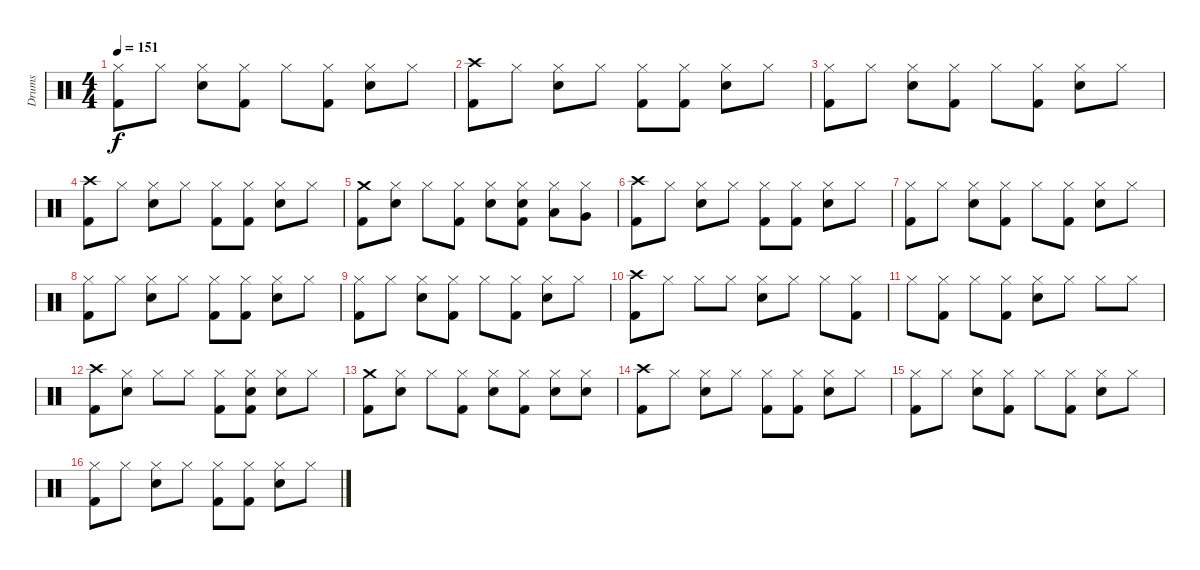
\track ("Drums" "Drums") {instrument percussion}
\staff {score}
\articulation defaults
\ts (4 4)
\tempo 151
\clef neutral
\ks c
("Kick (hit) 2" "Hi-Hat (closed)").8{dy f} "Hi-Hat (closed)".8 ("Electric Snare (hit)" "Hi-Hat (closed)").8 ("Kick (hit) 2" "Hi-Hat (closed)").8 "Hi-Hat (closed)".8 ("Kick (hit) 2" "Hi-Hat (closed)").8 ("Electric Snare (hit)" "Hi-Hat (closed)").8 "Hi-Hat (closed)".8 |
("Crash high (hit)" "Kick (hit) 2").8 "Hi-Hat (closed)".8 ("Electric Snare (hit)" "Hi-Hat (closed)").8 "Hi-Hat (closed)".8 ("Kick (hit) 2" "Hi-Hat (closed)").8 ("Kick (hit) 2" "Hi-Hat (closed)").8 ("Electric Snare (hit)" "Hi-Hat (closed)").8 "Hi-Hat (closed)".8 |
("Kick (hit) 2" "Hi-Hat (closed)").8 "Hi-Hat (closed)".8 ("Electric Snare (hit)" "Hi-Hat (closed)").8 ("Kick (hit) 2" "Hi-Hat (closed)").8 "Hi-Hat (closed)".8 ("Kick (hit) 2" "Hi-Hat (closed)").8 ("Electric Snare (hit)" "Hi-Hat (closed)").8 "Hi-Hat (closed)".8 |
("Crash high (hit)" "Kick (hit) 2").8 "Hi-Hat (closed)".8 ("Electric Snare (hit)" "Hi-Hat (closed)").8 "Hi-Hat (closed)".8 ("Kick (hit) 2" "Hi-Hat (closed)").8 ("Kick (hit) 2" "Hi-Hat (closed)").8 ("Electric Snare (hit)" "Hi-Hat (closed)").8 "Hi-Hat (closed)".8 |
("Kick (hit) 2" "Crash medium (hit)").8 ("Electric Snare (hit)" "Hi-Hat (closed)").8 "Hi-Hat (closed)".8 ("Kick (hit) 2" "Hi-Hat (closed)").8 ("Electric Snare (hit)" "Hi-Hat (closed)").8 ("Electric Snare (hit)" "Kick (hit) 2" "Hi-Hat (closed)").8 ("Low Tom (hit)" "Hi-Hat (closed)").8 ("Very Low Tom (hit)" "Hi-Hat (closed)").8 |
("Crash high (hit)" "Kick (hit) 2").8 "Hi-Hat (closed)".8 ("Electric Snare (hit)" "Hi-Hat (closed)").8 "Hi-Hat (closed)".8 ("Kick (hit) 2" "Hi-Hat (closed)").8 ("Kick (hit) 2" "Hi-Hat (closed)").8 ("Electric Snare (hit)" "Hi-Hat (closed)").8 "Hi-Hat (closed)".8 |
("Kick (hit) 2" "Hi-Hat (closed)").8 "Hi-Hat (closed)".8 ("Electric Snare (hit)" "Hi-Hat (closed)").8 ("Kick (hit) 2" "Hi-Hat (closed)").8 "Hi-Hat (closed)".8 ("Kick (hit) 2" "Hi-Hat (closed)").8 ("Electric Snare (hit)" "Hi-Hat (closed)").8 "Hi-Hat (closed)".8 |
("Hi-Hat (closed)" "Kick (hit) 2").8 "Hi-Hat (closed)".8 ("Electric Snare (hit)" "Hi-Hat (closed)").8 "Hi-Hat (closed)".8 ("Kick (hit) 2" "Hi-Hat (closed)").8 ("Kick (hit) 2" "Hi-Hat (closed)").8 ("Electric Snare (hit)" "Hi-Hat (closed)").8 "Hi-Hat (closed)".8 |
("Kick (hit) 2" "Hi-Hat (closed)").8 "Hi-Hat (closed)".8 ("Electric Snare (hit)" "Hi-Hat (closed)").8 ("Kick (hit) 2" "Hi-Hat (closed)").8 "Hi-Hat (closed)".8 ("Kick (hit) 2" "Hi-Hat (closed)").8 ("Electric Snare (hit)" "Hi-Hat (closed)").8 "Hi-Hat (closed)".8 |
("Crash high (hit)" "Kick (hit) 2").8 "Hi-Hat (closed)".8 "Hi-Hat (closed)".8 "Hi-Hat (closed)".8 ("Electric Snare (hit)" "Hi-Hat (closed)").8 "Hi-Hat (closed)".8 "Hi-Hat (closed)".8 ("Kick (hit) 2" "Hi-Hat (closed)").8 |
"Hi-Hat (closed)".8 ("Kick (hit) 2" "Hi-Hat (closed)").8 "Hi-Hat (closed)".8 ("Kick (hit) 2" "Hi-Hat (closed)").8 ("Electric Snare (hit)" "Hi-Hat (closed)").8 "Hi-Hat (closed)".8 "Hi-Hat (closed)".8 "Hi-Hat (closed)".8 |
("Crash high (hit)" "Kick (hit) 2").8 ("Electric Snare (hit)" "Hi-Hat (closed)").8 "Hi-Hat (closed)".8 "Hi-Hat (closed)".8 ("Kick (hit) 2" "Hi-Hat (closed)").8 ("Electric Snare (hit)" "Kick (hit) 2" "Hi-Hat (closed)").8 ("Electric Snare (hit)" "Hi-Hat (closed)").8 "Hi-Hat (closed)".8 |
("Kick (hit) 2" "Crash medium (hit)").8 ("Electric Snare (hit)" "Hi-Hat (closed)").8 "Hi-Hat (closed)".8 ("Kick (hit) 2" "Hi-Hat (closed)").8 ("Electric Snare (hit)" "Hi-Hat (closed)").8 ("Kick (hit) 2" "Hi-Hat (closed)").8 ("Electric Snare (hit)" "Hi-Hat (closed)").8 ("Electric Snare (hit)" "Hi-Hat (closed)").8 |
("Crash high (hit)" "Kick (hit) 2").8 "Hi-Hat (closed)".8 ("Electric Snare (hit)" "Hi-Hat (closed)").8 "Hi-Hat (closed)".8 ("Kick (hit) 2" "Hi-Hat (closed)").8 ("Kick (hit) 2" "Hi-Hat (closed)").8 ("Electric Snare (hit)" "Hi-Hat (closed)").8 "Hi-Hat (closed)".8 |
("Kick (hit) 2" "Hi-Hat (closed)").8 "Hi-Hat (closed)".8 ("Electric Snare (hit)" "Hi-Hat (closed)").8 ("Kick (hit) 2" "Hi-Hat (closed)").8 "Hi-Hat (closed)".8 ("Kick (hit) 2" "Hi-Hat (closed)").8 ("Electric Snare (hit)" "Hi-Hat (closed)").8 "Hi-Hat (closed)".8 |
("Hi-Hat (closed)" "Kick (hit) 2").8 "Hi-Hat (closed)".8 ("Electric Snare (hit)" "Hi-Hat (closed)").8 "Hi-Hat (closed)".8 ("Kick (hit) 2" "Hi-Hat (closed)").8 ("Kick (hit) 2" "Hi-Hat (closed)").8 ("Electric Snare (hit)" "Hi-Hat (closed)").8 "Hi-Hat (closed)".8
